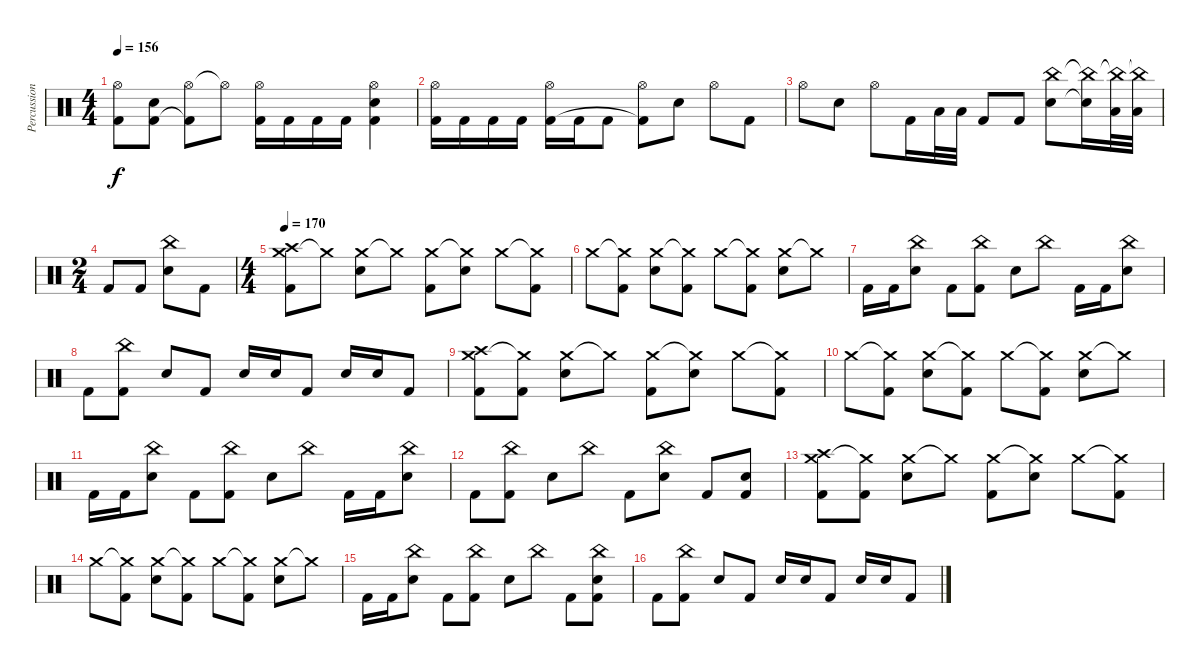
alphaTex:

\track ("Percussion" "Percussion") {instrument percussion}
\staff {score}
\articulation defaults
\ts (4 4)
\tempo 156
\clef neutral
\ks c
("Hi-Hat (open)" "Kick (hit) 2"{t}).8{dy f} ("Electric Snare (hit)" "Kick (hit) 2").8 ("Hi-Hat (open)" "Kick (hit) 2"{t}).8 "Hi-Hat (open)"{t}.8 ("Hi-Hat (open)" "Kick (hit) 2").16 "Kick (hit) 2".16 "Kick (hit) 2".16 "Kick (hit) 2".16 ("Hi-Hat (open)" "Electric Snare (hit)" "Kick (hit) 2").4 |
("Hi-Hat (open)" "Kick (hit) 2").16 "Kick (hit) 2".16 "Kick (hit) 2".16 "Kick (hit) 2".16 ("Hi-Hat (open)" "Kick (hit) 2").16 "Kick (hit) 2".16 "Kick (hit) 2".8 ("Hi-Hat (open)" "Kick (hit) 2"{t}).8 "Electric Snare (hit)".8 "Hi-Hat (open)".8 "Kick (hit) 2".8 |
"Hi-Hat (open)".8 "Electric Snare (hit)".8 "Hi-Hat (open)".8 "Kick (hit) 2".16 "Low Tom (hit)".32 "Low Tom (hit)".32 "Kick (hit) 2".8 "Kick (hit) 2".8 ("China (hit)" "Electric Snare (hit)").8 ("China (hit)"{t} "Electric Snare (hit)"{t}).16 ("China (hit)"{t} "Low Tom (hit)").32 ("China (hit)"{t} "Low Tom (hit)").32 |
\ts (2 4)
"Kick (hit) 2".8 "Kick (hit) 2".8 ("China (hit)" "Electric Snare (hit)").8 "Kick (hit) 2".8 |
\ts (4 4)
\tempo 170
("Crash medium (hit)" "Crash high (hit)" "Kick (hit) 2").8 "Crash medium (hit)"{t}.8 ("Crash medium (hit)" "Electric Snare (hit)").8 "Crash medium (hit)"{t}.8 ("Crash medium (hit)" "Kick (hit) 2").8 ("Crash medium (hit)"{t} "Electric Snare (hit)").8 "Crash medium (hit)".8 ("Crash medium (hit)"{t} "Kick (hit) 2").8 |
"Crash medium (hit)".8 ("Crash medium (hit)"{t} "Kick (hit) 2").8 ("Crash medium (hit)" "Electric Snare (hit)").8 ("Crash medium (hit)"{t} "Kick (hit) 2").8 "Crash medium (hit)".8 ("Crash medium (hit)"{t} "Kick (hit) 2").8 ("Crash medium (hit)" "Electric Snare (hit)").8 "Crash medium (hit)"{t}.8 |
"Kick (hit) 2".16 "Kick (hit) 2".16 ("China (hit)" "Electric Snare (hit)").8 "Kick (hit) 2".8 ("China (hit)" "Kick (hit) 2").8 "Electric Snare (hit)".8 "China (hit)".8 "Kick (hit) 2".16 "Kick (hit) 2".16 ("China (hit)" "Electric Snare (hit)").8 |
"Kick (hit) 2".8 ("China (hit)" "Kick (hit) 2").8 "Electric Snare (hit)".8 "Kick (hit) 2".8 "Electric Snare (hit)".16 "Electric Snare (hit)".16 "Kick (hit) 2".8 "Electric Snare (hit)".16 "Electric Snare (hit)".16 "Kick (hit) 2".8 |
("Crash medium (hit)" "Crash high (hit)" "Kick (hit) 2").8 ("Crash medium (hit)"{t} "Kick (hit) 2").8 ("Crash medium (hit)" "Electric Snare (hit)").8 "Crash medium (hit)"{t}.8 ("Crash medium (hit)" "Kick (hit) 2").8 ("Crash medium (hit)"{t} "Electric Snare (hit)").8 "Crash medium (hit)".8 ("Crash medium (hit)"{t} "Kick (hit) 2").8 |
"Crash medium (hit)".8 ("Crash medium (hit)"{t} "Kick (hit) 2").8 ("Crash medium (hit)" "Electric Snare (hit)").8 ("Crash medium (hit)"{t} "Kick (hit) 2").8 "Crash medium (hit)".8 ("Crash medium (hit)"{t} "Kick (hit) 2").8 ("Crash medium (hit)" "Electric Snare (hit)").8 "Crash medium (hit)"{t}.8 |
"Kick (hit) 2".16 "Kick (hit) 2".16 ("China (hit)" "Electric Snare (hit)").8 "Kick (hit) 2".8 ("China (hit)" "Kick (hit) 2").8 "Electric Snare (hit)".8 "China (hit)".8 "Kick (hit) 2".16 "Kick (hit) 2".16 ("China (hit)" "Electric Snare (hit)").8 |
"Kick (hit) 2".8 ("China (hit)" "Kick (hit) 2").8 "Electric Snare (hit)".8 "China (hit)".8 "Kick (hit) 2".8 ("China (hit)" "Electric Snare (hit)").8 "Kick (hit) 2".8 ("Electric Snare (hit)" "Kick (hit) 2").8 |
("Crash medium (hit)" "Crash high (hit)" "Kick (hit) 2").8 ("Crash medium (hit)"{t} "Kick (hit) 2").8 ("Crash medium (hit)" "Electric Snare (hit)").8 "Crash medium (hit)"{t}.8 ("Crash medium (hit)" "Kick (hit) 2").8 ("Crash medium (hit)"{t} "Electric Snare (hit)").8 "Crash medium (hit)".8 ("Crash medium (hit)"{t} "Kick (hit) 2").8 |
"Crash medium (hit)".8 ("Crash medium (hit)"{t} "Kick (hit) 2").8 ("Crash medium (hit)" "Electric Snare (hit)").8 ("Crash medium (hit)"{t} "Kick (hit) 2").8 "Crash medium (hit)".8 ("Crash medium (hit)"{t} "Kick (hit) 2").8 ("Crash medium (hit)" "Electric Snare (hit)").8 "Crash medium (hit)"{t}.8 |
"Kick (hit) 2".16 "Kick (hit) 2".16 ("China (hit)" "Electric Snare (hit)").8 "Kick (hit) 2".8 ("China (hit)" "Kick (hit) 2").8 "Electric Snare (hit)".8 "China (hit)".8 "Kick (hit) 2".8 ("China (hit)" "Electric Snare (hit)" "Kick (hit) 2").8 |
"Kick (hit) 2".8 ("China (hit)" "Kick (hit) 2").8 "Electric Snare (hit)".8 "Kick (hit) 2".8 "Electric Snare (hit)".16 "Electric Snare (hit)".16 "Kick (hit) 2".8 "Electric Snare (hit)".16 "Electric Snare (hit)".16 "Kick (hit) 2".8
